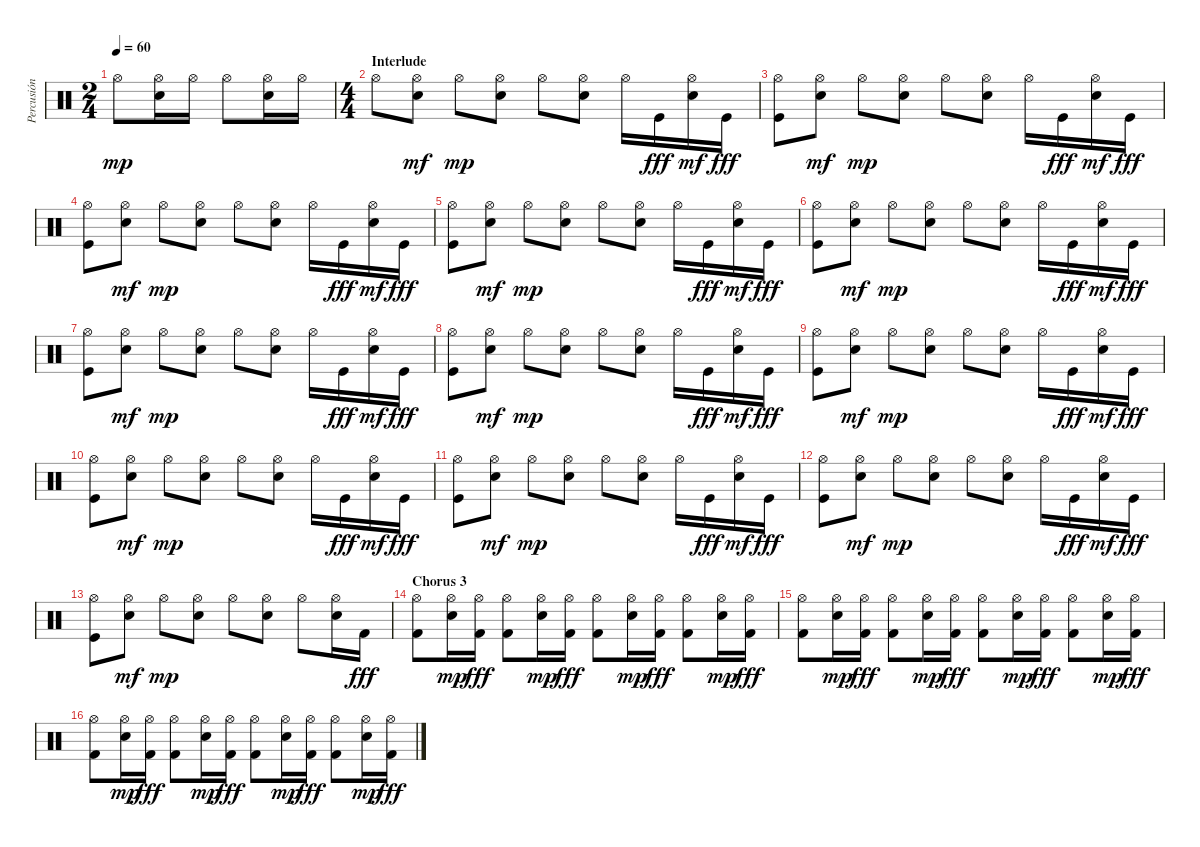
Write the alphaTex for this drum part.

\track ("Percusión" "Percusión") {instrument percussion}
\staff {score}
\articulation defaults
\ts (2 4)
\tempo 60
\clef neutral
\ks c "Hi-Hat (open)".8{dy mp}
("Hi-Hat (open)" "Snare (hit) 2").16 "Hi-Hat (open)".16 "Hi-Hat (open)".8 ("Hi-Hat (open)" "Snare (hit) 2").16 "Hi-Hat (open)".16 |
\ts (4 4)
\section ("" "Interlude")
"Hi-Hat (open)".8 ("Hi-Hat (open)" "Snare (hit) 2").8{dy mf} "Hi-Hat (open)".8{dy mp} ("Hi-Hat (open)" "Snare (hit) 2").8 "Hi-Hat (open)".8 ("Hi-Hat (open)" "Snare (hit) 2").8 "Hi-Hat (open)".16 "Kick (hit)".16{dy fff} ("Hi-Hat (open)" "Snare (hit) 2").16{dy mf} "Kick (hit)".16{dy fff} |
("Hi-Hat (open)" "Kick (hit)").8 ("Hi-Hat (open)" "Snare (hit) 2").8{dy mf} "Hi-Hat (open)".8{dy mp} ("Hi-Hat (open)" "Snare (hit) 2").8 "Hi-Hat (open)".8 ("Hi-Hat (open)" "Snare (hit) 2").8 "Hi-Hat (open)".16 "Kick (hit)".16{dy fff} ("Hi-Hat (open)" "Snare (hit) 2").16{dy mf} "Kick (hit)".16{dy fff} |
("Hi-Hat (open)" "Kick (hit)").8 ("Hi-Hat (open)" "Snare (hit) 2").8{dy mf} "Hi-Hat (open)".8{dy mp} ("Hi-Hat (open)" "Snare (hit) 2").8 "Hi-Hat (open)".8 ("Hi-Hat (open)" "Snare (hit) 2").8 "Hi-Hat (open)".16 "Kick (hit)".16{dy fff} ("Hi-Hat (open)" "Snare (hit) 2").16{dy mf} "Kick (hit)".16{dy fff} |
("Hi-Hat (open)" "Kick (hit)").8 ("Hi-Hat (open)" "Snare (hit) 2").8{dy mf} "Hi-Hat (open)".8{dy mp} ("Hi-Hat (open)" "Snare (hit) 2").8 "Hi-Hat (open)".8 ("Hi-Hat (open)" "Snare (hit) 2").8 "Hi-Hat (open)".16 "Kick (hit)".16{dy fff} ("Hi-Hat (open)" "Snare (hit) 2").16{dy mf} "Kick (hit)".16{dy fff} |
("Hi-Hat (open)" "Kick (hit)").8 ("Hi-Hat (open)" "Snare (hit) 2").8{dy mf} "Hi-Hat (open)".8{dy mp} ("Hi-Hat (open)" "Snare (hit) 2").8 "Hi-Hat (open)".8 ("Hi-Hat (open)" "Snare (hit) 2").8 "Hi-Hat (open)".16 "Kick (hit)".16{dy fff} ("Hi-Hat (open)" "Snare (hit) 2").16{dy mf} "Kick (hit)".16{dy fff} |
("Hi-Hat (open)" "Kick (hit)").8 ("Hi-Hat (open)" "Snare (hit) 2").8{dy mf} "Hi-Hat (open)".8{dy mp} ("Hi-Hat (open)" "Snare (hit) 2").8 "Hi-Hat (open)".8 ("Hi-Hat (open)" "Snare (hit) 2").8 "Hi-Hat (open)".16 "Kick (hit)".16{dy fff} ("Hi-Hat (open)" "Snare (hit) 2").16{dy mf} "Kick (hit)".16{dy fff} |
("Hi-Hat (open)" "Kick (hit)").8 ("Hi-Hat (open)" "Snare (hit) 2").8{dy mf} "Hi-Hat (open)".8{dy mp} ("Hi-Hat (open)" "Snare (hit) 2").8 "Hi-Hat (open)".8 ("Hi-Hat (open)" "Snare (hit) 2").8 "Hi-Hat (open)".16 "Kick (hit)".16{dy fff} ("Hi-Hat (open)" "Snare (hit) 2").16{dy mf} "Kick (hit)".16{dy fff} |
("Hi-Hat (open)" "Kick (hit)").8 ("Hi-Hat (open)" "Snare (hit) 2").8{dy mf} "Hi-Hat (open)".8{dy mp} ("Hi-Hat (open)" "Snare (hit) 2").8 "Hi-Hat (open)".8 ("Hi-Hat (open)" "Snare (hit) 2").8 "Hi-Hat (open)".16 "Kick (hit)".16{dy fff} ("Hi-Hat (open)" "Snare (hit) 2").16{dy mf} "Kick (hit)".16{dy fff} |
("Hi-Hat (open)" "Kick (hit)").8 ("Hi-Hat (open)" "Snare (hit) 2").8{dy mf} "Hi-Hat (open)".8{dy mp} ("Hi-Hat (open)" "Snare (hit) 2").8 "Hi-Hat (open)".8 ("Hi-Hat (open)" "Snare (hit) 2").8 "Hi-Hat (open)".16 "Kick (hit)".16{dy fff} ("Hi-Hat (open)" "Snare (hit) 2").16{dy mf} "Kick (hit)".16{dy fff} |
("Hi-Hat (open)" "Kick (hit)").8 ("Hi-Hat (open)" "Snare (hit) 2").8{dy mf} "Hi-Hat (open)".8{dy mp} ("Hi-Hat (open)" "Snare (hit) 2").8 "Hi-Hat (open)".8 ("Hi-Hat (open)" "Snare (hit) 2").8 "Hi-Hat (open)".16 "Kick (hit)".16{dy fff} ("Hi-Hat (open)" "Snare (hit) 2").16{dy mf} "Kick (hit)".16{dy fff} |
("Hi-Hat (open)" "Kick (hit)").8 ("Hi-Hat (open)" "Snare (hit) 2").8{dy mf} "Hi-Hat (open)".8{dy mp} ("Hi-Hat (open)" "Snare (hit) 2").8 "Hi-Hat (open)".8 ("Hi-Hat (open)" "Snare (hit) 2").8 "Hi-Hat (open)".16 "Kick (hit)".16{dy fff} ("Hi-Hat (open)" "Snare (hit) 2").16{dy mf} "Kick (hit)".16{dy fff} |
("Hi-Hat (open)" "Kick (hit)").8 ("Hi-Hat (open)" "Snare (hit) 2").8{dy mf} "Hi-Hat (open)".8{dy mp} ("Hi-Hat (open)" "Snare (hit) 2").8 "Hi-Hat (open)".8 ("Hi-Hat (open)" "Snare (hit) 2").8 "Hi-Hat (open)".8 ("Hi-Hat (open)" "Snare (hit) 2").16 "Kick (hit) 2".16{dy fff} |
\section ("" "Chorus 3")
("Hi-Hat (open)" "Kick (hit) 2").8 ("Hi-Hat (open)" "Snare (hit) 2").16{dy mp} ("Hi-Hat (open)" "Kick (hit) 2").16{dy fff} ("Hi-Hat (open)" "Kick (hit) 2").8 ("Hi-Hat (open)" "Snare (hit) 2").16{dy mp} ("Hi-Hat (open)" "Kick (hit) 2").16{dy fff} ("Hi-Hat (open)" "Kick (hit) 2").8 ("Hi-Hat (open)" "Snare (hit) 2").16{dy mp} ("Hi-Hat (open)" "Kick (hit) 2").16{dy fff} ("Hi-Hat (open)" "Kick (hit) 2").8 ("Hi-Hat (open)" "Snare (hit) 2").16{dy mp} ("Hi-Hat (open)" "Kick (hit) 2").16{dy fff} |
("Hi-Hat (open)" "Kick (hit) 2").8 ("Hi-Hat (open)" "Snare (hit) 2").16{dy mp} ("Hi-Hat (open)" "Kick (hit) 2").16{dy fff} ("Hi-Hat (open)" "Kick (hit) 2").8 ("Hi-Hat (open)" "Snare (hit) 2").16{dy mp} ("Hi-Hat (open)" "Kick (hit) 2").16{dy fff} ("Hi-Hat (open)" "Kick (hit) 2").8 ("Hi-Hat (open)" "Snare (hit) 2").16{dy mp} ("Hi-Hat (open)" "Kick (hit) 2").16{dy fff} ("Hi-Hat (open)" "Kick (hit) 2").8 ("Hi-Hat (open)" "Snare (hit) 2").16{dy mp} ("Hi-Hat (open)" "Kick (hit) 2").16{dy fff} |
("Hi-Hat (open)" "Kick (hit) 2").8 ("Hi-Hat (open)" "Snare (hit) 2").16{dy mp} ("Hi-Hat (open)" "Kick (hit) 2").16{dy fff} ("Hi-Hat (open)" "Kick (hit) 2").8 ("Hi-Hat (open)" "Snare (hit) 2").16{dy mp} ("Hi-Hat (open)" "Kick (hit) 2").16{dy fff} ("Hi-Hat (open)" "Kick (hit) 2").8 ("Hi-Hat (open)" "Snare (hit) 2").16{dy mp} ("Hi-Hat (open)" "Kick (hit) 2").16{dy fff} ("Hi-Hat (open)" "Kick (hit) 2").8 ("Hi-Hat (open)" "Snare (hit) 2").16{dy mp} ("Hi-Hat (open)" "Kick (hit) 2").16{dy fff}
